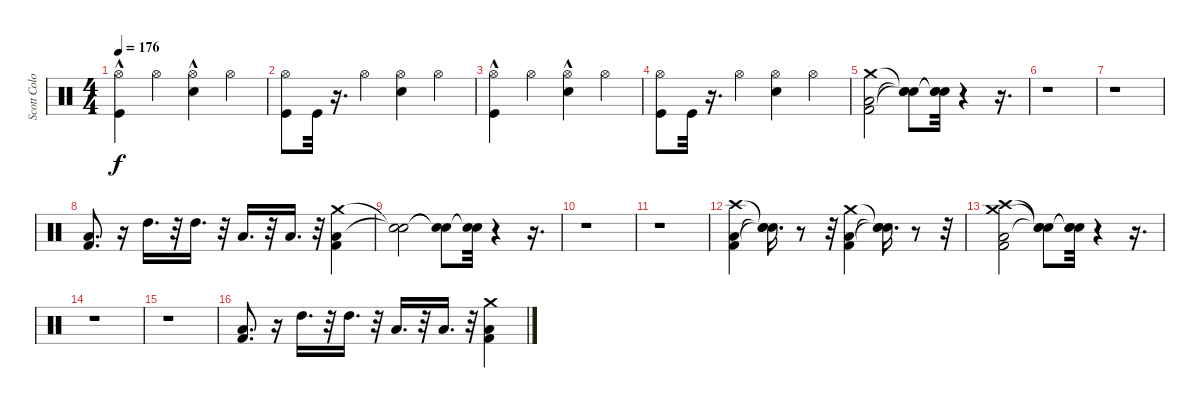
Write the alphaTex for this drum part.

\track ("Scott Colombus" "Scott Colo") {instrument percussion}
\staff {score}
\articulation defaults
\ts (4 4)
\tempo 176
\clef neutral
\ks c
("Hi-Hat (open)" "Kick (hit)"{hac}).4{dy f} "Hi-Hat (open)".4 ("Hi-Hat (open)" "Snare (hit) 2"{hac}).4 "Hi-Hat (open)".4 |
("Hi-Hat (open)" "Kick (hit)").8 "Kick (hit)".32 r.16{d} "Hi-Hat (open)".4 ("Hi-Hat (open)" "Snare (hit) 2").4 "Hi-Hat (open)".4 |
("Hi-Hat (open)" "Kick (hit)"{hac}).4 "Hi-Hat (open)".4 ("Hi-Hat (open)" "Snare (hit) 2"{hac}).4 "Hi-Hat (open)".4 |
("Hi-Hat (open)" "Kick (hit)").8 "Kick (hit)".32 r.16{d} "Hi-Hat (open)".4 ("Hi-Hat (open)" "Snare (hit) 2").4 "Hi-Hat (open)".4 |
("Crash medium (hit)" "Low Floor Tom (hit)" "Kick (hit) 2").2 ("Snare (hit)"{t} "Snare (hit)"{t} "Snare (hit)"{t}).8 ("Snare (hit)"{t} "Snare (hit)"{t} "Snare (hit)"{t}).32 r.4 r.16{d} |
r.1 |
r.1 |
("Low Floor Tom (hit)" "Kick (hit) 2").8{d} r.16 "High Tom (hit)".16{d} r.32 "High Tom (hit)".16{d} r.32 "Low Tom (hit)".16{d} r.32 "Low Tom (hit)".16{d} r.32 ("Low Floor Tom (hit)" "Crash medium (hit)" "Kick (hit) 2").4 |
("Snare (hit)"{t} "Snare (hit)"{t}).2 ("Snare (hit)"{t} "Snare (hit)"{t}).8 ("Snare (hit)"{t} "Snare (hit)"{t}).32 r.4 r.16{d} |
r.1 |
r.1 |
("Low Floor Tom (hit)" "Crash high (hit)" "Kick (hit) 2").4 ("Snare (hit)"{t} "Snare (hit)"{t} "Snare (hit)"{t}).16{d} r.8 r.32 ("Low Floor Tom (hit)" "Crash medium (hit)" "Kick (hit) 2").4 ("Snare (hit)"{t} "Snare (hit)"{t} "Snare (hit)"{t}).16{d} r.8 r.32 |
("Low Floor Tom (hit)" "Crash high (hit)" "Crash medium (hit)" "Kick (hit) 2").2 ("Snare (hit)"{t} "Snare (hit)"{t} "Snare (hit)"{t}).8 ("Snare (hit)"{t} "Snare (hit)"{t} "Snare (hit)"{t}).32 r.4 r.16{d} |
r.1 |
r.1 |
("Low Floor Tom (hit)" "Kick (hit) 2").8{d} r.16 "High Tom (hit)".16{d} r.32 "High Tom (hit)".16{d} r.32 "Low Tom (hit)".16{d} r.32 "Low Tom (hit)".16{d} r.32 ("Low Floor Tom (hit)" "Crash medium (hit)" "Kick (hit) 2").4
